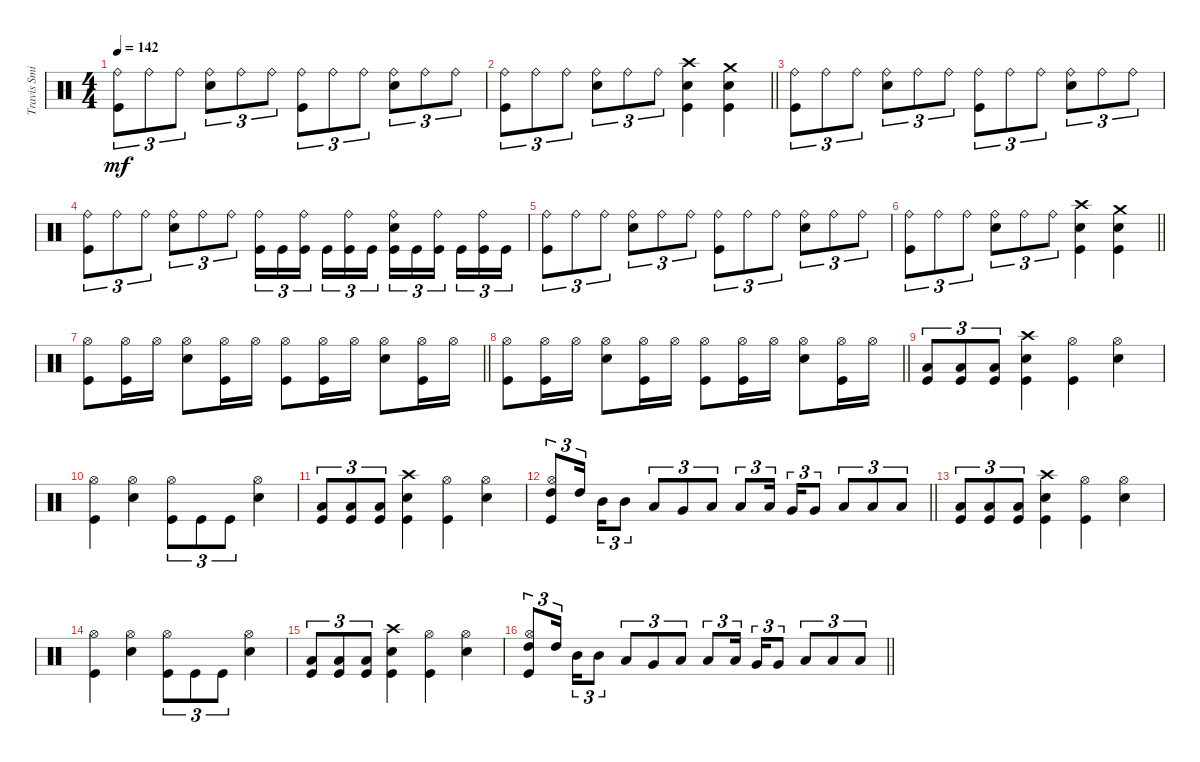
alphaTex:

\track ("Travis Smith" "Travis Smi") {instrument percussion}
\staff {score}
\articulation defaults
\ts (4 4)
\tempo 142
\clef neutral
\ks c
("Ride (bell)" "Kick (hit)").8{tu (3 2) dy mf} "Ride (bell)".8{tu (3 2)} "Ride (bell)".8{tu (3 2)} ("Ride (bell)" "Snare (hit) 2").8{tu (3 2)} "Ride (bell)".8{tu (3 2)} "Ride (bell)".8{tu (3 2)} ("Ride (bell)" "Kick (hit)").8{tu (3 2)} "Ride (bell)".8{tu (3 2)} "Ride (bell)".8{tu (3 2)} ("Ride (bell)" "Snare (hit) 2").8{tu (3 2)} "Ride (bell)".8{tu (3 2)} "Ride (bell)".8{tu (3 2)} |
\barLineRight lightlight
("Ride (bell)" "Kick (hit)").8{tu (3 2)} "Ride (bell)".8{tu (3 2)} "Ride (bell)".8{tu (3 2)} ("Ride (bell)" "Snare (hit) 2").8{tu (3 2)} "Ride (bell)".8{tu (3 2)} "Ride (bell)".8{tu (3 2)} ("Crash high (hit)" "Snare (hit) 2" "Kick (hit)").4 ("Crash medium (hit)" "Snare (hit) 2" "Kick (hit)").4 |
("Ride (bell)" "Kick (hit)").8{tu (3 2)} "Ride (bell)".8{tu (3 2)} "Ride (bell)".8{tu (3 2)} ("Ride (bell)" "Snare (hit) 2").8{tu (3 2)} "Ride (bell)".8{tu (3 2)} "Ride (bell)".8{tu (3 2)} ("Ride (bell)" "Kick (hit)").8{tu (3 2)} "Ride (bell)".8{tu (3 2)} "Ride (bell)".8{tu (3 2)} ("Ride (bell)" "Snare (hit) 2").8{tu (3 2)} "Ride (bell)".8{tu (3 2)} "Ride (bell)".8{tu (3 2)} |
("Ride (bell)" "Kick (hit)").8{tu (3 2)} "Ride (bell)".8{tu (3 2)} "Ride (bell)".8{tu (3 2)} ("Ride (bell)" "Snare (hit) 2").8{tu (3 2)} "Ride (bell)".8{tu (3 2)} "Ride (bell)".8{tu (3 2)} ("Ride (bell)" "Kick (hit)").16{tu (3 2)} "Kick (hit)".16{tu (3 2)} ("Ride (bell)" "Kick (hit)").16{tu (3 2)} "Kick (hit)".16{tu (3 2)} ("Ride (bell)" "Kick (hit)").16{tu (3 2)} "Kick (hit)".16{tu (3 2)} ("Ride (bell)" "Snare (hit) 2" "Kick (hit)").16{tu (3 2)} "Kick (hit)".16{tu (3 2)} ("Ride (bell)" "Kick (hit)").16{tu (3 2)} "Kick (hit)".16{tu (3 2)} ("Ride (bell)" "Kick (hit)").16{tu (3 2)} "Kick (hit)".16{tu (3 2)} |
("Ride (bell)" "Kick (hit)").8{tu (3 2)} "Ride (bell)".8{tu (3 2)} "Ride (bell)".8{tu (3 2)} ("Ride (bell)" "Snare (hit) 2").8{tu (3 2)} "Ride (bell)".8{tu (3 2)} "Ride (bell)".8{tu (3 2)} ("Ride (bell)" "Kick (hit)").8{tu (3 2)} "Ride (bell)".8{tu (3 2)} "Ride (bell)".8{tu (3 2)} ("Ride (bell)" "Snare (hit) 2").8{tu (3 2)} "Ride (bell)".8{tu (3 2)} "Ride (bell)".8{tu (3 2)} |
\barLineRight lightlight
("Ride (bell)" "Kick (hit)").8{tu (3 2)} "Ride (bell)".8{tu (3 2)} "Ride (bell)".8{tu (3 2)} ("Ride (bell)" "Snare (hit) 2").8{tu (3 2)} "Ride (bell)".8{tu (3 2)} "Ride (bell)".8{tu (3 2)} ("Crash high (hit)" "Snare (hit) 2" "Kick (hit)").4 ("Crash medium (hit)" "Snare (hit) 2" "Kick (hit)").4 |
\section ("" "")
\barLineRight lightlight
("Hi-Hat (open)" "Kick (hit)").8 ("Hi-Hat (open)" "Kick (hit)").16 "Hi-Hat (open)".16 ("Hi-Hat (open)" "Snare (hit) 2").8 ("Hi-Hat (open)" "Kick (hit)").16 "Hi-Hat (open)".16 ("Hi-Hat (open)" "Kick (hit)").8 ("Hi-Hat (open)" "Kick (hit)").16 "Hi-Hat (open)".16 ("Hi-Hat (open)" "Snare (hit) 2").8 ("Hi-Hat (open)" "Kick (hit)").16 "Hi-Hat (open)".16 |
\barLineRight lightlight
("Hi-Hat (open)" "Kick (hit)").8 ("Hi-Hat (open)" "Kick (hit)").16 "Hi-Hat (open)".16 ("Hi-Hat (open)" "Snare (hit) 2").8 ("Hi-Hat (open)" "Kick (hit)").16 "Hi-Hat (open)".16 ("Hi-Hat (open)" "Kick (hit)").8 ("Hi-Hat (open)" "Kick (hit)").16 "Hi-Hat (open)".16 ("Hi-Hat (open)" "Snare (hit) 2").8 ("Hi-Hat (open)" "Kick (hit)").16 "Hi-Hat (open)".16 |
\section ("" "")
("Low Tom (hit)" "Kick (hit)").8{tu (3 2)} ("Low Tom (hit)" "Kick (hit)").8{tu (3 2)} ("Low Tom (hit)" "Kick (hit)").8{tu (3 2)} ("Crash high (hit)" "Snare (hit) 2" "Kick (hit)").4 ("Hi-Hat (open)" "Kick (hit)").4 ("Hi-Hat (open)" "Snare (hit) 2").4 |
("Hi-Hat (open)" "Kick (hit)").4 ("Hi-Hat (open)" "Snare (hit) 2").4 ("Hi-Hat (open)" "Kick (hit)").8{tu (3 2)} "Kick (hit)".8{tu (3 2)} "Kick (hit)".8{tu (3 2)} ("Hi-Hat (open)" "Snare (hit) 2").4 |
("Low Tom (hit)" "Kick (hit)").8{tu (3 2)} ("Low Tom (hit)" "Kick (hit)").8{tu (3 2)} ("Low Tom (hit)" "Kick (hit)").8{tu (3 2)} ("Crash high (hit)" "Snare (hit) 2" "Kick (hit)").4 ("Hi-Hat (open)" "Kick (hit)").4 ("Hi-Hat (open)" "Snare (hit) 2").4 |
\barLineRight lightlight
("High Tom (hit)" "Hi-Hat (open)" "Kick (hit)").8{tu (3 2)} "High Tom (hit)".16{tu (3 2)} "Mid Tom (hit)".16{tu (3 2)} "Mid Tom (hit)".8{tu (3 2)} "Low Tom (hit)".8{tu (3 2)} "Very Low Tom (hit)".8{tu (3 2)} "Low Floor Tom (hit)".8{tu (3 2)} "Low Tom (hit)".8{tu (3 2)} "Low Tom (hit)".16{tu (3 2)} "Very Low Tom (hit)".16{tu (3 2)} "Very Low Tom (hit)".8{tu (3 2)} "Low Floor Tom (hit)".8{tu (3 2)} "Low Floor Tom (hit)".8{tu (3 2)} "Low Floor Tom (hit)".8{tu (3 2)} |
("Low Tom (hit)" "Kick (hit)").8{tu (3 2)} ("Low Tom (hit)" "Kick (hit)").8{tu (3 2)} ("Low Tom (hit)" "Kick (hit)").8{tu (3 2)} ("Crash high (hit)" "Snare (hit) 2" "Kick (hit)").4 ("Hi-Hat (open)" "Kick (hit)").4 ("Hi-Hat (open)" "Snare (hit) 2").4 |
("Hi-Hat (open)" "Kick (hit)").4 ("Hi-Hat (open)" "Snare (hit) 2").4 ("Hi-Hat (open)" "Kick (hit)").8{tu (3 2)} "Kick (hit)".8{tu (3 2)} "Kick (hit)".8{tu (3 2)} ("Hi-Hat (open)" "Snare (hit) 2").4 |
("Low Tom (hit)" "Kick (hit)").8{tu (3 2)} ("Low Tom (hit)" "Kick (hit)").8{tu (3 2)} ("Low Tom (hit)" "Kick (hit)").8{tu (3 2)} ("Crash high (hit)" "Snare (hit) 2" "Kick (hit)").4 ("Hi-Hat (open)" "Kick (hit)").4 ("Hi-Hat (open)" "Snare (hit) 2").4 |
\barLineRight lightlight
("High Tom (hit)" "Hi-Hat (open)" "Kick (hit)").8{tu (3 2)} "High Tom (hit)".16{tu (3 2)} "Mid Tom (hit)".16{tu (3 2)} "Mid Tom (hit)".8{tu (3 2)} "Low Tom (hit)".8{tu (3 2)} "Very Low Tom (hit)".8{tu (3 2)} "Low Floor Tom (hit)".8{tu (3 2)} "Low Tom (hit)".8{tu (3 2)} "Low Tom (hit)".16{tu (3 2)} "Very Low Tom (hit)".16{tu (3 2)} "Very Low Tom (hit)".8{tu (3 2)} "Low Floor Tom (hit)".8{tu (3 2)} "Low Floor Tom (hit)".8{tu (3 2)} "Low Floor Tom (hit)".8{tu (3 2)}
